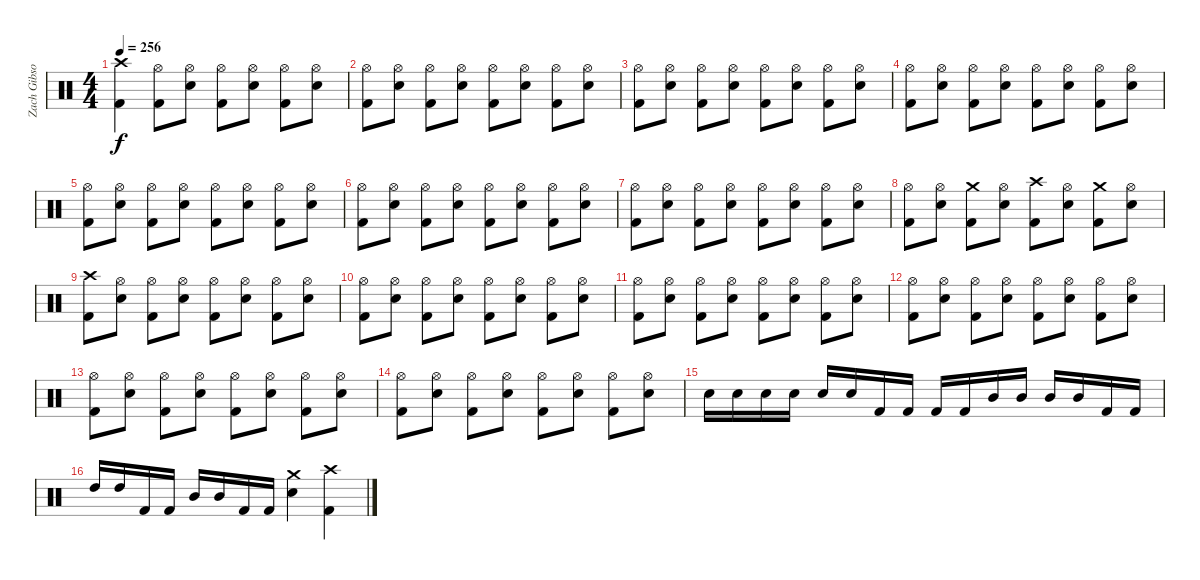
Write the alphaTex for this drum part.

\track ("Zach Gibson (Drums)" "Zach Gibso") {instrument percussion}
\staff {score}
\articulation defaults
\ts (4 4)
\tempo 256
\clef neutral
\ks c
("Crash high (hit)" "Kick (hit) 2").4{dy f} ("Hi-Hat (open)" "Kick (hit) 2").8 ("Hi-Hat (open)" "Snare (hit) 2").8 ("Hi-Hat (open)" "Kick (hit) 2").8 ("Hi-Hat (open)" "Snare (hit) 2").8 ("Hi-Hat (open)" "Kick (hit) 2").8 ("Hi-Hat (open)" "Snare (hit) 2").8 |
("Hi-Hat (open)" "Kick (hit) 2").8 ("Hi-Hat (open)" "Snare (hit) 2").8 ("Hi-Hat (open)" "Kick (hit) 2").8 ("Hi-Hat (open)" "Snare (hit) 2").8 ("Hi-Hat (open)" "Kick (hit) 2").8 ("Hi-Hat (open)" "Snare (hit) 2").8 ("Hi-Hat (open)" "Kick (hit) 2").8 ("Hi-Hat (open)" "Snare (hit) 2").8 |
("Hi-Hat (open)" "Kick (hit) 2").8 ("Hi-Hat (open)" "Snare (hit) 2").8 ("Hi-Hat (open)" "Kick (hit) 2").8 ("Hi-Hat (open)" "Snare (hit) 2").8 ("Hi-Hat (open)" "Kick (hit) 2").8 ("Hi-Hat (open)" "Snare (hit) 2").8 ("Hi-Hat (open)" "Kick (hit) 2").8 ("Hi-Hat (open)" "Snare (hit) 2").8 |
("Hi-Hat (open)" "Kick (hit) 2").8 ("Hi-Hat (open)" "Snare (hit) 2").8 ("Hi-Hat (open)" "Kick (hit) 2").8 ("Hi-Hat (open)" "Snare (hit) 2").8 ("Hi-Hat (open)" "Kick (hit) 2").8 ("Hi-Hat (open)" "Snare (hit) 2").8 ("Hi-Hat (open)" "Kick (hit) 2").8 ("Hi-Hat (open)" "Snare (hit) 2").8 |
("Hi-Hat (open)" "Kick (hit) 2").8 ("Hi-Hat (open)" "Snare (hit) 2").8 ("Hi-Hat (open)" "Kick (hit) 2").8 ("Hi-Hat (open)" "Snare (hit) 2").8 ("Hi-Hat (open)" "Kick (hit) 2").8 ("Hi-Hat (open)" "Snare (hit) 2").8 ("Hi-Hat (open)" "Kick (hit) 2").8 ("Hi-Hat (open)" "Snare (hit) 2").8 |
("Hi-Hat (open)" "Kick (hit) 2").8 ("Hi-Hat (open)" "Snare (hit) 2").8 ("Hi-Hat (open)" "Kick (hit) 2").8 ("Hi-Hat (open)" "Snare (hit) 2").8 ("Hi-Hat (open)" "Kick (hit) 2").8 ("Hi-Hat (open)" "Snare (hit) 2").8 ("Hi-Hat (open)" "Kick (hit) 2").8 ("Hi-Hat (open)" "Snare (hit) 2").8 |
("Hi-Hat (open)" "Kick (hit) 2").8 ("Hi-Hat (open)" "Snare (hit) 2").8 ("Hi-Hat (open)" "Kick (hit) 2").8 ("Hi-Hat (open)" "Snare (hit) 2").8 ("Hi-Hat (open)" "Kick (hit) 2").8 ("Hi-Hat (open)" "Snare (hit) 2").8 ("Hi-Hat (open)" "Kick (hit) 2").8 ("Hi-Hat (open)" "Snare (hit) 2").8 |
("Hi-Hat (open)" "Kick (hit) 2").8 ("Hi-Hat (open)" "Snare (hit) 2").8 ("Crash medium (hit)" "Kick (hit) 2").8 ("Hi-Hat (open)" "Snare (hit) 2").8 ("Crash high (hit)" "Kick (hit) 2").8 ("Hi-Hat (open)" "Snare (hit) 2").8 ("Crash medium (hit)" "Kick (hit) 2").8 ("Hi-Hat (open)" "Snare (hit) 2").8 |
("Crash high (hit)" "Kick (hit) 2").8 ("Hi-Hat (open)" "Snare (hit) 2").8 ("Hi-Hat (open)" "Kick (hit) 2").8 ("Hi-Hat (open)" "Snare (hit) 2").8 ("Hi-Hat (open)" "Kick (hit) 2").8 ("Hi-Hat (open)" "Snare (hit) 2").8 ("Hi-Hat (open)" "Kick (hit) 2").8 ("Hi-Hat (open)" "Snare (hit) 2").8 |
("Hi-Hat (open)" "Kick (hit) 2").8 ("Hi-Hat (open)" "Snare (hit) 2").8 ("Hi-Hat (open)" "Kick (hit) 2").8 ("Hi-Hat (open)" "Snare (hit) 2").8 ("Hi-Hat (open)" "Kick (hit) 2").8 ("Hi-Hat (open)" "Snare (hit) 2").8 ("Hi-Hat (open)" "Kick (hit) 2").8 ("Hi-Hat (open)" "Snare (hit) 2").8 |
("Hi-Hat (open)" "Kick (hit) 2").8 ("Hi-Hat (open)" "Snare (hit) 2").8 ("Hi-Hat (open)" "Kick (hit) 2").8 ("Hi-Hat (open)" "Snare (hit) 2").8 ("Hi-Hat (open)" "Kick (hit) 2").8 ("Hi-Hat (open)" "Snare (hit) 2").8 ("Hi-Hat (open)" "Kick (hit) 2").8 ("Hi-Hat (open)" "Snare (hit) 2").8 |
("Hi-Hat (open)" "Kick (hit) 2").8 ("Hi-Hat (open)" "Snare (hit) 2").8 ("Hi-Hat (open)" "Kick (hit) 2").8 ("Hi-Hat (open)" "Snare (hit) 2").8 ("Hi-Hat (open)" "Kick (hit) 2").8 ("Hi-Hat (open)" "Snare (hit) 2").8 ("Hi-Hat (open)" "Kick (hit) 2").8 ("Hi-Hat (open)" "Snare (hit) 2").8 |
("Hi-Hat (open)" "Kick (hit) 2").8 ("Hi-Hat (open)" "Snare (hit) 2").8 ("Hi-Hat (open)" "Kick (hit) 2").8 ("Hi-Hat (open)" "Snare (hit) 2").8 ("Hi-Hat (open)" "Kick (hit) 2").8 ("Hi-Hat (open)" "Snare (hit) 2").8 ("Hi-Hat (open)" "Kick (hit) 2").8 ("Hi-Hat (open)" "Snare (hit) 2").8 |
("Hi-Hat (open)" "Kick (hit) 2").8 ("Hi-Hat (open)" "Snare (hit) 2").8 ("Hi-Hat (open)" "Kick (hit) 2").8 ("Hi-Hat (open)" "Snare (hit) 2").8 ("Hi-Hat (open)" "Kick (hit) 2").8 ("Hi-Hat (open)" "Snare (hit) 2").8 ("Hi-Hat (open)" "Kick (hit) 2").8 ("Hi-Hat (open)" "Snare (hit) 2").8 |
"Snare (hit) 2".16 "Snare (hit) 2".16 "Snare (hit) 2".16 "Snare (hit) 2".16 "Snare (hit) 2".16 "Snare (hit) 2".16 "Kick (hit) 2".16 "Kick (hit) 2".16 "Kick (hit) 2".16 "Kick (hit) 2".16 "Mid Tom (hit)".16 "Mid Tom (hit)".16 "Mid Tom (hit)".16 "Mid Tom (hit)".16 "Kick (hit) 2".16 "Kick (hit) 2".16 |
"High Tom (hit)".16 "High Tom (hit)".16 "Kick (hit) 2".16 "Kick (hit) 2".16 "Mid Tom (hit)".16 "Mid Tom (hit)".16 "Kick (hit) 2".16 "Kick (hit) 2".16 ("Crash medium (hit)" "Snare (hit) 2").4 ("Crash high (hit)" "Kick (hit) 2").4
